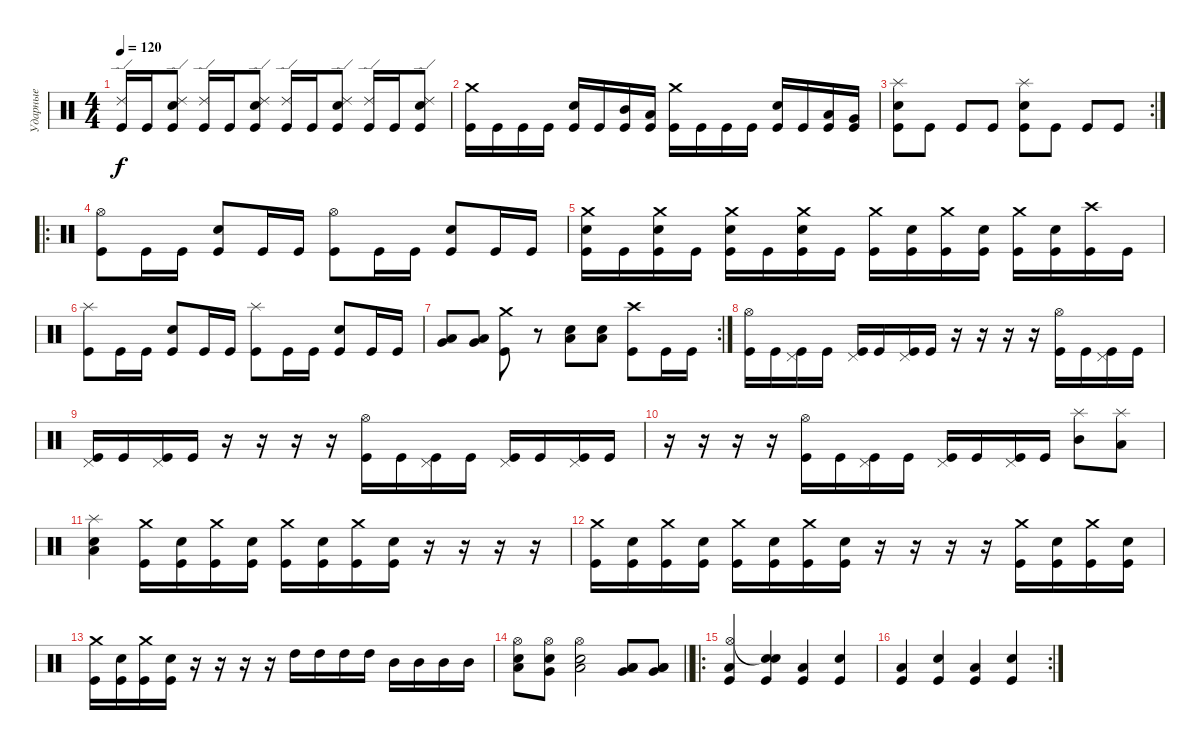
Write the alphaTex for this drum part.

\track ("Ударные" "Ударные") {instrument percussion}
\staff {score}
\articulation defaults
\ts (4 4)
\tempo 120
\clef neutral
\ks c
("Ride (edge) 2" "Kick (hit)").16{dy f} "Kick (hit)".16 ("Ride (edge) 2" "Electric Snare (hit)" "Kick (hit)").8 ("Ride (edge) 2" "Kick (hit)").16 "Kick (hit)".16 ("Ride (edge) 2" "Electric Snare (hit)" "Kick (hit)").8 ("Ride (edge) 2" "Kick (hit)").16 "Kick (hit)".16 ("Ride (edge) 2" "Electric Snare (hit)" "Kick (hit)").8 ("Ride (edge) 2" "Kick (hit)").16 "Kick (hit)".16 ("Ride (edge) 2" "Electric Snare (hit)" "Kick (hit)").8 |
("Crash medium (hit)" "Kick (hit)").16 "Kick (hit)".16 "Kick (hit)".16 "Kick (hit)".16 ("Electric Snare (hit)" "Kick (hit)").16 "Kick (hit)".16 ("Mid Tom (hit)" "Kick (hit)").16 ("Low Tom (hit)" "Kick (hit)").16 ("Crash medium (hit)" "Kick (hit)").16 "Kick (hit)".16 "Kick (hit)".16 "Kick (hit)".16 ("Electric Snare (hit)" "Kick (hit)").16 "Kick (hit)".16 ("Low Tom (hit)" "Kick (hit)").16 ("Very Low Tom (hit)" "Kick (hit)").16 |
\rc 2
("Splash (hit)" "Electric Snare (hit)" "Kick (hit)").8 "Kick (hit)".8 "Kick (hit)".8 "Kick (hit)".8 ("Splash (hit)" "Kick (hit)" "Electric Snare (hit)").8 "Kick (hit)".8 "Kick (hit)".8 "Kick (hit)".8 |
\ro
("Hi-Hat (open)" "Kick (hit)").8 "Kick (hit)".16 "Kick (hit)".16 ("Electric Snare (hit)" "Kick (hit)").8 "Kick (hit)".16 "Kick (hit)".16 ("Hi-Hat (open)" "Kick (hit)").8 "Kick (hit)".16 "Kick (hit)".16 ("Electric Snare (hit)" "Kick (hit)").8 "Kick (hit)".16 "Kick (hit)".16 |
("Crash medium (hit)" "Kick (hit)" "Electric Snare (hit)").16 "Kick (hit)".16 ("Crash medium (hit)" "Kick (hit)" "Electric Snare (hit)").16 "Kick (hit)".16 ("Crash medium (hit)" "Kick (hit)" "Electric Snare (hit)").16 "Kick (hit)".16 ("Crash medium (hit)" "Kick (hit)" "Electric Snare (hit)").16 "Kick (hit)".16 ("Crash medium (hit)" "Kick (hit)").16 ("Electric Snare (hit)" "Kick (hit)").16 ("Crash medium (hit)" "Kick (hit)").16 ("Electric Snare (hit)" "Kick (hit)").16 ("Crash medium (hit)" "Kick (hit)").16 ("Electric Snare (hit)" "Kick (hit)").16 ("Crash high (hit)" "Kick (hit)").16 "Kick (hit)".16 |
("Splash (hit)" "Kick (hit)").8 "Kick (hit)".16 "Kick (hit)".16 ("Electric Snare (hit)" "Kick (hit)").8 "Kick (hit)".16 "Kick (hit)".16 ("Splash (hit)" "Kick (hit)").8 "Kick (hit)".16 "Kick (hit)".16 ("Electric Snare (hit)" "Kick (hit)").8 "Kick (hit)".16 "Kick (hit)".16 |
\rc 2
("Low Tom (hit)" "Very Low Tom (hit)").8 ("Low Tom (hit)" "Very Low Tom (hit)").8 ("Crash medium (hit)" "Kick (hit)").8 r.8 ("Electric Snare (hit)" "Low Floor Tom (hit)").8 ("Electric Snare (hit)" "Low Floor Tom (hit)").8 ("Crash high (hit)" "Kick (hit)").8 "Kick (hit)".16 "Kick (hit)".16 |
("Kick (hit)" "Hi-Hat (open)").16 "Kick (hit)".16 ("Kick (hit)" "Pedal Hi-Hat (hit)").16 "Kick (hit)".16 ("Kick (hit)" "Pedal Hi-Hat (hit)").16 "Kick (hit)".16 ("Kick (hit)" "Pedal Hi-Hat (hit)").16 "Kick (hit)".16 r.16 r.16 r.16 r.16 ("Kick (hit)" "Hi-Hat (open)").16 "Kick (hit)".16 ("Kick (hit)" "Pedal Hi-Hat (hit)").16 "Kick (hit)".16 |
("Kick (hit)" "Pedal Hi-Hat (hit)").16 "Kick (hit)".16 ("Kick (hit)" "Pedal Hi-Hat (hit)").16 "Kick (hit)".16 r.16 r.16 r.16 r.16 ("Kick (hit)" "Hi-Hat (open)").16 "Kick (hit)".16 ("Kick (hit)" "Pedal Hi-Hat (hit)").16 "Kick (hit)".16 ("Kick (hit)" "Pedal Hi-Hat (hit)").16 "Kick (hit)".16 ("Kick (hit)" "Pedal Hi-Hat (hit)").16 "Kick (hit)".16 |
r.16 r.16 r.16 r.16 ("Kick (hit)" "Hi-Hat (open)").16 "Kick (hit)".16 ("Kick (hit)" "Pedal Hi-Hat (hit)").16 "Kick (hit)".16 ("Kick (hit)" "Pedal Hi-Hat (hit)").16 "Kick (hit)".16 ("Kick (hit)" "Pedal Hi-Hat (hit)").16 "Kick (hit)".16 ("Mid Tom (hit)" "Splash (hit)").8 ("Low Tom (hit)" "Splash (hit)").8 |
("Electric Snare (hit)" "Low Floor Tom (hit)" "Splash (hit)").4 ("Crash medium (hit)" "Kick (hit)").16 ("Electric Snare (hit)" "Kick (hit)").16 ("Crash medium (hit)" "Kick (hit)").16 ("Electric Snare (hit)" "Kick (hit)").16 ("Crash medium (hit)" "Kick (hit)").16 ("Electric Snare (hit)" "Kick (hit)").16 ("Crash medium (hit)" "Kick (hit)").16 ("Electric Snare (hit)" "Kick (hit)").16 r.16 r.16 r.16 r.16 |
("Crash medium (hit)" "Kick (hit)").16 ("Electric Snare (hit)" "Kick (hit)").16 ("Crash medium (hit)" "Kick (hit)").16 ("Electric Snare (hit)" "Kick (hit)").16 ("Crash medium (hit)" "Kick (hit)").16 ("Electric Snare (hit)" "Kick (hit)").16 ("Crash medium (hit)" "Kick (hit)").16 ("Electric Snare (hit)" "Kick (hit)").16 r.16 r.16 r.16 r.16 ("Crash medium (hit)" "Kick (hit)").16 ("Electric Snare (hit)" "Kick (hit)").16 ("Crash medium (hit)" "Kick (hit)").16 ("Electric Snare (hit)" "Kick (hit)").16 |
("Crash medium (hit)" "Kick (hit)").16 ("Electric Snare (hit)" "Kick (hit)").16 ("Crash medium (hit)" "Kick (hit)").16 ("Electric Snare (hit)" "Kick (hit)").16 r.16 r.16 r.16 r.16 "High Tom (hit)".16 "High Tom (hit)".16 "High Tom (hit)".16 "High Tom (hit)".16 "Mid Tom (hit)".16 "Mid Tom (hit)".16 "Mid Tom (hit)".16 "Mid Tom (hit)".16 |
\barLineRight lightlight
("Hi-Hat (open)" "Electric Snare (hit)" "Low Tom (hit)").8 ("Hi-Hat (open)" "Electric Snare (hit)" "Very Low Tom (hit)").8 ("Hi-Hat (open)" "Electric Snare (hit)" "Low Floor Tom (hit)").2 ("Low Floor Tom (hit)" "Low Floor Tom (hit)" "Very Low Tom (hit)").8 ("Low Floor Tom (hit)" "Low Floor Tom (hit)" "Very Low Tom (hit)").8 |
\ro
("Hi-Hat (open)" "Low Floor Tom (hit)" "Kick (hit)").4 ("Snare (hit)"{t} "Electric Snare (hit)" "Kick (hit)").4 ("Low Floor Tom (hit)" "Kick (hit)").4 ("Electric Snare (hit)" "Kick (hit)").4 |
\rc 2
("Low Floor Tom (hit)" "Kick (hit)").4 ("Electric Snare (hit)" "Kick (hit)").4 ("Low Floor Tom (hit)" "Kick (hit)").4 ("Electric Snare (hit)" "Kick (hit)").4
